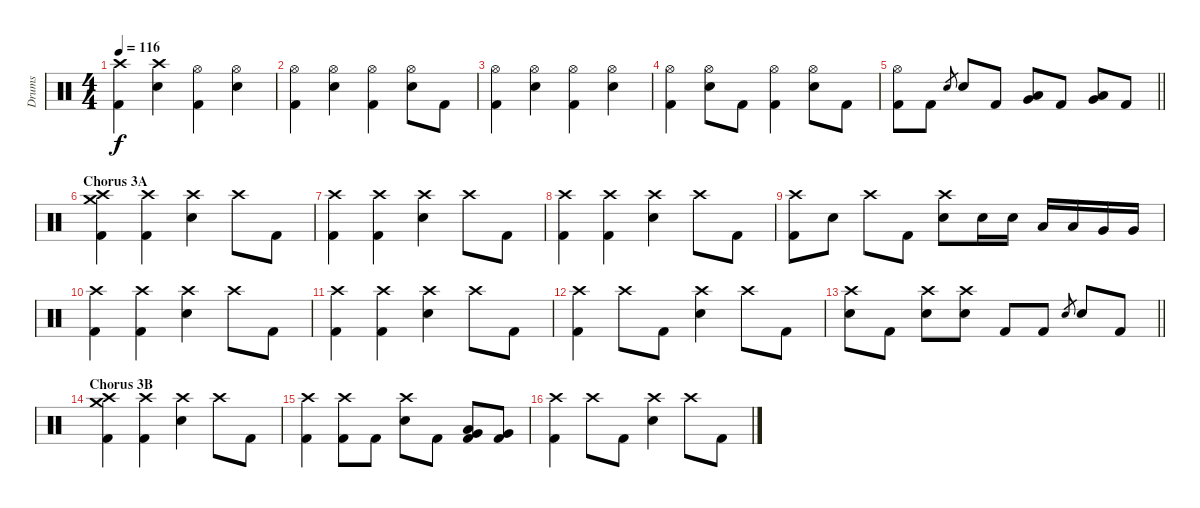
\track ("Drums" "Drums") {instrument percussion}
\staff {score}
\articulation defaults
\ts (4 4)
\tempo 116
\clef neutral
\ks c
("Crash high (hit)" "Kick (hit) 2").4{dy f} ("Crash high (hit)" "Electric Snare (hit)").4 ("Hi-Hat (open)" "Kick (hit) 2").4 ("Electric Snare (hit)" "Hi-Hat (open)").4 |
("Hi-Hat (open)" "Kick (hit) 2").4 ("Electric Snare (hit)" "Hi-Hat (open)").4 ("Hi-Hat (open)" "Kick (hit) 2").4 ("Electric Snare (hit)" "Hi-Hat (open)").8 "Kick (hit) 2".8 |
("Hi-Hat (open)" "Kick (hit) 2").4 ("Electric Snare (hit)" "Hi-Hat (open)").4 ("Hi-Hat (open)" "Kick (hit) 2").4 ("Electric Snare (hit)" "Hi-Hat (open)").4 |
("Hi-Hat (open)" "Kick (hit) 2").4 ("Electric Snare (hit)" "Hi-Hat (open)").8 "Kick (hit) 2".8 ("Hi-Hat (open)" "Kick (hit) 2").4 ("Electric Snare (hit)" "Hi-Hat (open)").8 "Kick (hit) 2".8 |
\barLineRight lightlight
("Hi-Hat (open)" "Kick (hit) 2").8 "Kick (hit) 2".8 "Electric Snare (hit)".8{gr} "Electric Snare (hit)".8 "Kick (hit) 2".8 ("Low Tom (hit)" "Very Low Tom (hit)").8 "Kick (hit) 2".8 ("Very Low Tom (hit)" "Low Floor Tom (hit)").8 "Kick (hit) 2".8 |
\section ("" "Chorus 3A")
("Crash high (hit)" "Crash medium (hit)" "Kick (hit) 2").4 ("Crash high (hit)" "Kick (hit) 2").4 ("Crash high (hit)" "Electric Snare (hit)").4 "Crash high (hit)".8 "Kick (hit) 2".8 |
("Crash high (hit)" "Kick (hit) 2").4 ("Crash high (hit)" "Kick (hit) 2").4 ("Crash high (hit)" "Electric Snare (hit)").4 "Crash high (hit)".8 "Kick (hit) 2".8 |
("Crash high (hit)" "Kick (hit) 2").4 ("Crash high (hit)" "Kick (hit) 2").4 ("Crash high (hit)" "Electric Snare (hit)").4 "Crash high (hit)".8 "Kick (hit) 2".8 |
("Crash high (hit)" "Kick (hit) 2").8 "Electric Snare (hit)".8 "Crash high (hit)".8 "Kick (hit) 2".8 ("Crash high (hit)" "Electric Snare (hit)").8 "Electric Snare (hit)".16 "Electric Snare (hit)".16 "Low Tom (hit)".16 "Low Tom (hit)".16 "Very Low Tom (hit)".16 "Very Low Tom (hit)".16 |
("Crash high (hit)" "Kick (hit) 2").4 ("Crash high (hit)" "Kick (hit) 2").4 ("Crash high (hit)" "Electric Snare (hit)").4 "Crash high (hit)".8 "Kick (hit) 2".8 |
("Crash high (hit)" "Kick (hit) 2").4 ("Crash high (hit)" "Kick (hit) 2").4 ("Crash high (hit)" "Electric Snare (hit)").4 "Crash high (hit)".8 "Kick (hit) 2".8 |
("Crash high (hit)" "Kick (hit) 2").4 "Crash high (hit)".8 "Kick (hit) 2".8 ("Crash high (hit)" "Electric Snare (hit)").4 "Crash high (hit)".8 "Kick (hit) 2".8 |
\barLineRight lightlight
("Crash high (hit)" "Electric Snare (hit)").8 "Kick (hit) 2".8 ("Crash high (hit)" "Electric Snare (hit)").8 ("Crash high (hit)" "Electric Snare (hit)").8 "Kick (hit) 2".8 "Kick (hit) 2".8 "Electric Snare (hit)".8{gr} "Electric Snare (hit)".8 "Kick (hit) 2".8 |
\section ("" "Chorus 3B")
("Crash high (hit)" "Crash medium (hit)" "Kick (hit) 2").4 ("Crash high (hit)" "Kick (hit) 2").4 ("Crash high (hit)" "Electric Snare (hit)").4 "Crash high (hit)".8 "Kick (hit) 2".8 |
("Crash high (hit)" "Kick (hit) 2").4 ("Crash high (hit)" "Kick (hit) 2").8 "Kick (hit) 2".8 ("Crash high (hit)" "Electric Snare (hit)").8 "Kick (hit) 2".8 ("Low Tom (hit)" "Very Low Tom (hit)" "Kick (hit) 2").8 ("Very Low Tom (hit)" "Kick (hit) 2").8 |
("Crash high (hit)" "Kick (hit) 2").4 "Crash high (hit)".8 "Kick (hit) 2".8 ("Crash high (hit)" "Electric Snare (hit)").4 "Crash high (hit)".8 "Kick (hit) 2".8
